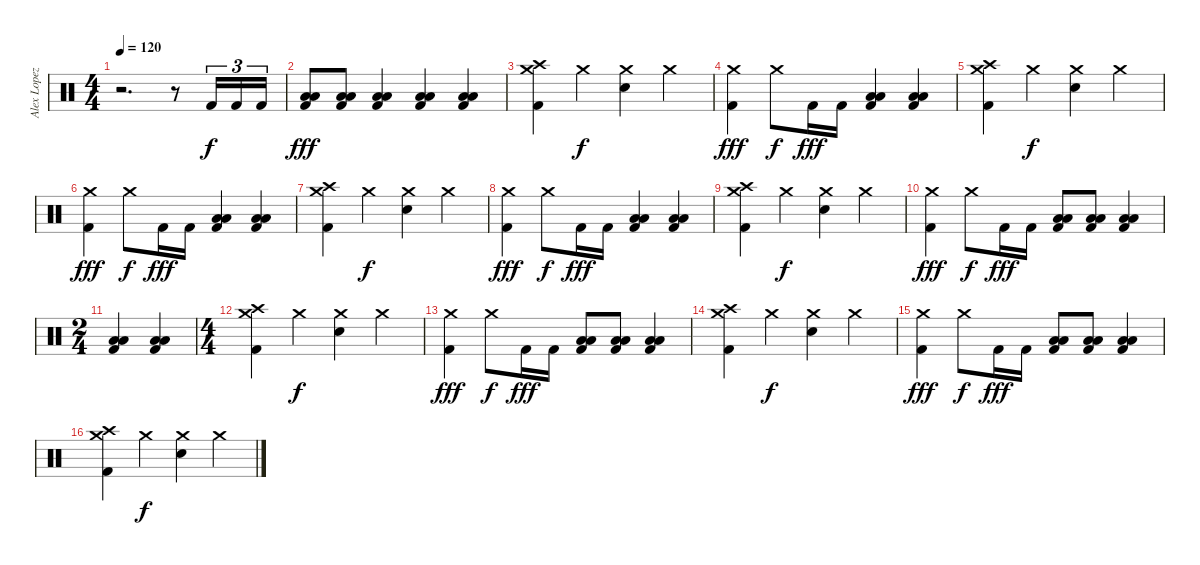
\track ("Alex Lopez" "Alex Lopez") {instrument percussion}
\staff {score}
\articulation defaults
\ts (4 4)
\tempo 120
\clef neutral
\ks c
r.2{d dy f} r.8 "Kick (hit) 2".16{tu (3 2)} "Kick (hit) 2".16{tu (3 2)} "Kick (hit) 2".16{tu (3 2)} |
("Low Floor Tom (hit)" "Low Tom (hit)" "Kick (hit) 2").8{dy fff} ("Low Floor Tom (hit)" "Low Tom (hit)" "Kick (hit) 2").8 ("Low Floor Tom (hit)" "Low Tom (hit)" "Kick (hit) 2").4 ("Low Floor Tom (hit)" "Low Tom (hit)" "Kick (hit) 2").4 ("Low Floor Tom (hit)" "Low Tom (hit)" "Kick (hit) 2").4 |
("Crash high (hit)" "Crash medium (hit)" "Kick (hit) 2").4 "Crash medium (hit)".4{dy f} ("Crash medium (hit)" "Snare (hit) 2").4 "Crash medium (hit)".4 |
("Crash medium (hit)" "Kick (hit) 2").4{dy fff} "Crash medium (hit)".8{dy f} "Kick (hit) 2".16{dy fff} "Kick (hit) 2".16 ("Low Floor Tom (hit)" "Low Tom (hit)" "Kick (hit) 2").4 ("Low Floor Tom (hit)" "Low Tom (hit)" "Kick (hit) 2").4 |
("Crash high (hit)" "Crash medium (hit)" "Kick (hit) 2").4 "Crash medium (hit)".4{dy f} ("Crash medium (hit)" "Snare (hit) 2").4 "Crash medium (hit)".4 |
("Crash medium (hit)" "Kick (hit) 2").4{dy fff} "Crash medium (hit)".8{dy f} "Kick (hit) 2".16{dy fff} "Kick (hit) 2".16 ("Low Floor Tom (hit)" "Low Tom (hit)" "Kick (hit) 2").4 ("Low Floor Tom (hit)" "Low Tom (hit)" "Kick (hit) 2").4 |
("Crash high (hit)" "Crash medium (hit)" "Kick (hit) 2").4 "Crash medium (hit)".4{dy f} ("Crash medium (hit)" "Snare (hit) 2").4 "Crash medium (hit)".4 |
("Crash medium (hit)" "Kick (hit) 2").4{dy fff} "Crash medium (hit)".8{dy f} "Kick (hit) 2".16{dy fff} "Kick (hit) 2".16 ("Low Floor Tom (hit)" "Low Tom (hit)" "Kick (hit) 2").4 ("Low Floor Tom (hit)" "Low Tom (hit)" "Kick (hit) 2").4 |
("Crash high (hit)" "Crash medium (hit)" "Kick (hit) 2").4 "Crash medium (hit)".4{dy f} ("Crash medium (hit)" "Snare (hit) 2").4 "Crash medium (hit)".4 |
("Crash medium (hit)" "Kick (hit) 2").4{dy fff} "Crash medium (hit)".8{dy f} "Kick (hit) 2".16{dy fff} "Kick (hit) 2".16 ("Low Tom (hit)" "Low Floor Tom (hit)" "Kick (hit) 2").8 ("Low Tom (hit)" "Low Floor Tom (hit)" "Kick (hit) 2").8 ("Low Tom (hit)" "Low Floor Tom (hit)" "Kick (hit) 2").4 |
\ts (2 4)
("Low Tom (hit)" "Low Floor Tom (hit)" "Kick (hit) 2").4 ("Low Tom (hit)" "Low Floor Tom (hit)" "Kick (hit) 2").4 |
\ts (4 4)
("Crash high (hit)" "Crash medium (hit)" "Kick (hit) 2").4 "Crash medium (hit)".4{dy f} ("Crash medium (hit)" "Snare (hit) 2").4 "Crash medium (hit)".4 |
("Crash medium (hit)" "Kick (hit) 2").4{dy fff} "Crash medium (hit)".8{dy f} "Kick (hit) 2".16{dy fff} "Kick (hit) 2".16 ("Low Tom (hit)" "Low Floor Tom (hit)" "Kick (hit) 2").8 ("Low Tom (hit)" "Low Floor Tom (hit)" "Kick (hit) 2").8 ("Low Tom (hit)" "Low Floor Tom (hit)" "Kick (hit) 2").4 |
("Crash high (hit)" "Crash medium (hit)" "Kick (hit) 2").4 "Crash medium (hit)".4{dy f} ("Crash medium (hit)" "Snare (hit) 2").4 "Crash medium (hit)".4 |
("Crash medium (hit)" "Kick (hit) 2").4{dy fff} "Crash medium (hit)".8{dy f} "Kick (hit) 2".16{dy fff} "Kick (hit) 2".16 ("Low Tom (hit)" "Low Floor Tom (hit)" "Kick (hit) 2").8 ("Low Tom (hit)" "Low Floor Tom (hit)" "Kick (hit) 2").8 ("Low Tom (hit)" "Low Floor Tom (hit)" "Kick (hit) 2").4 |
("Crash high (hit)" "Crash medium (hit)" "Kick (hit) 2").4 "Crash medium (hit)".4{dy f} ("Crash medium (hit)" "Snare (hit) 2").4 "Crash medium (hit)".4
